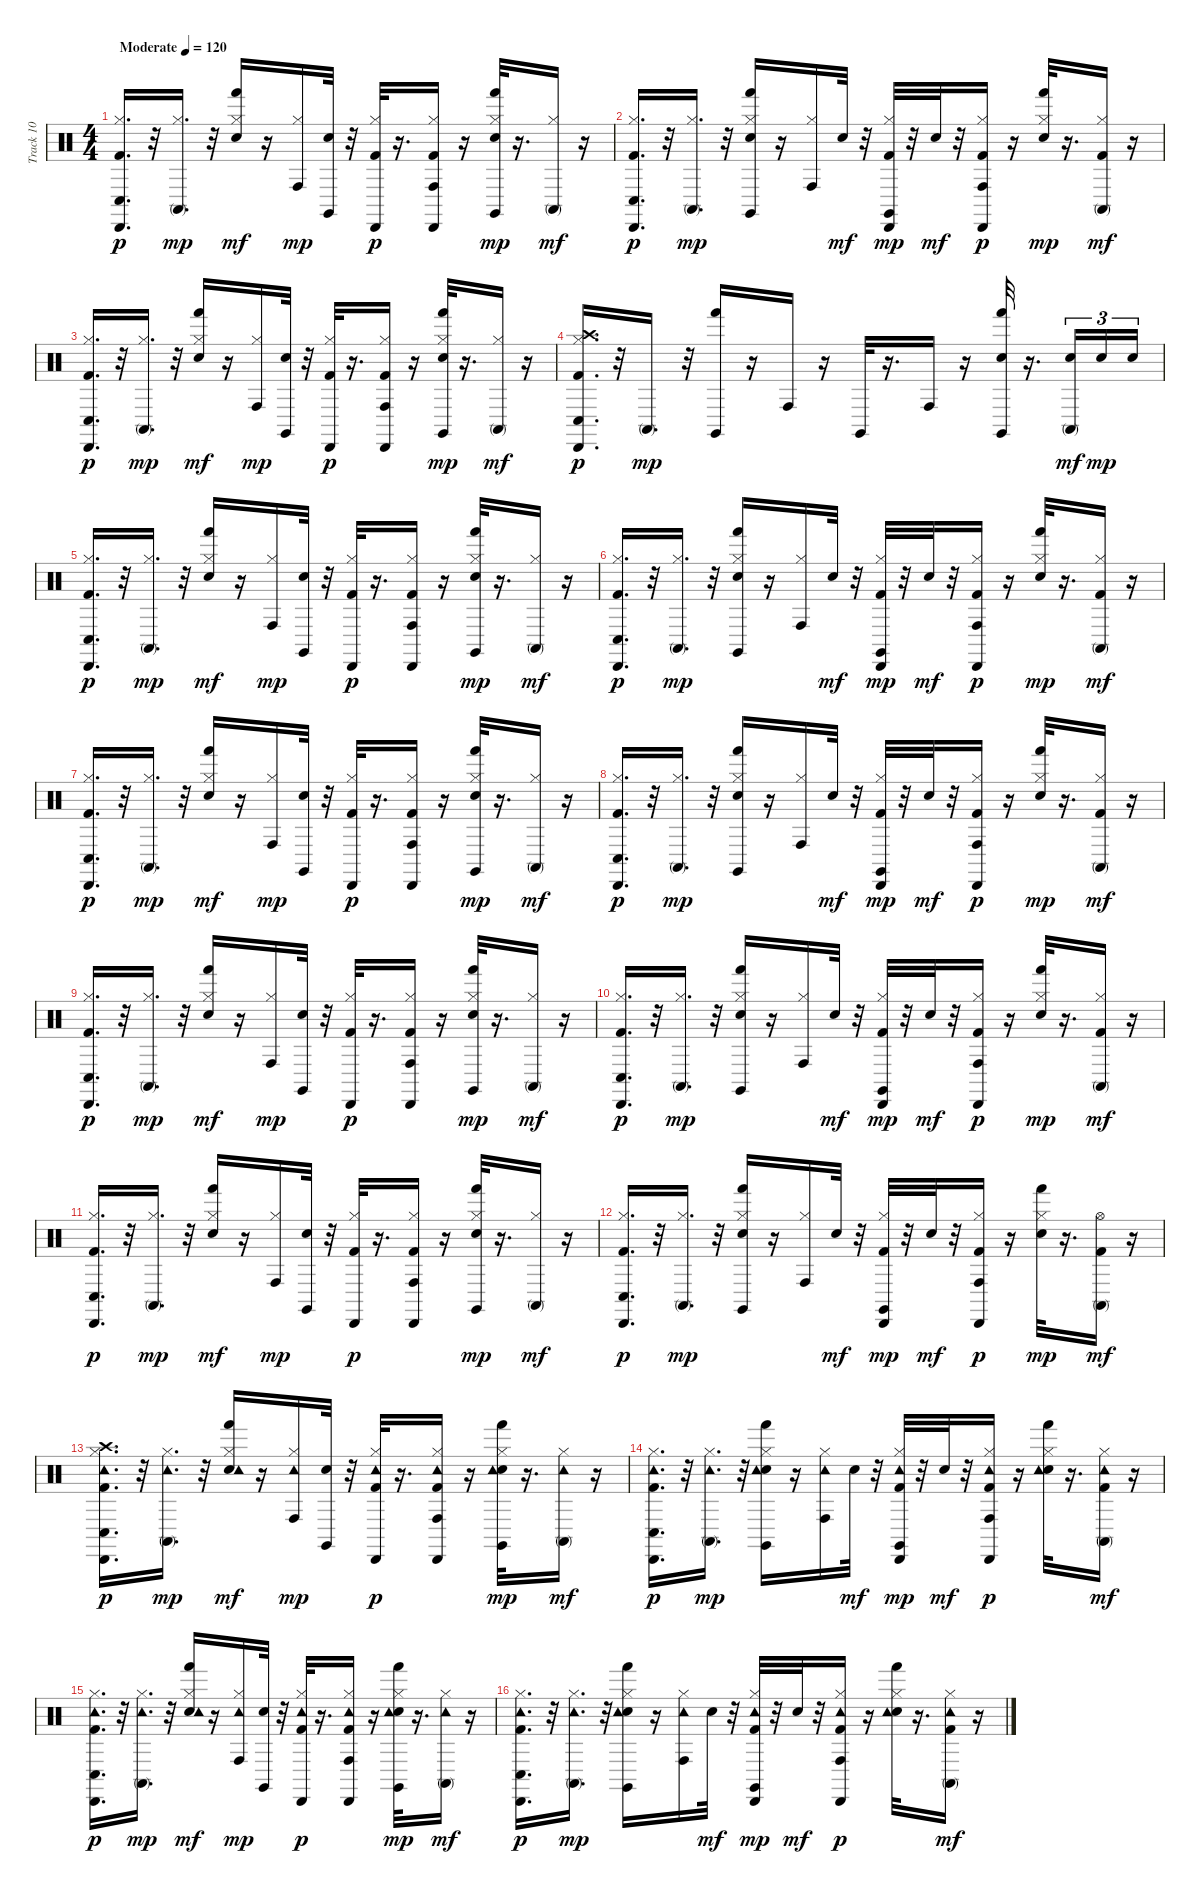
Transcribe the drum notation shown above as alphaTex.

\track ("Track 10" "Track 10") {instrument percussion}
\staff {score}
\articulation defaults
\ts (4 4)
\tempo (120 "Moderate")
\clef neutral
\ks c
("Kick (hit) 2" "Hi-Hat (closed)" "Conga low (hit)" "Cabasa (hit)").16{d dy p} r.32 ("Hi-Hat (closed)" "Conga high (mute)").16{d dy mp} r.32 ("Electric Snare (hit)" "Hi-Hat (closed)" "Hand (hit)").16{dy mf} r.16 ("Hi-Hat (closed)" "Conga high (hit)").16{dy mp} ("Electric Snare (hit)" "Claves (hit)").32 r.32 ("Kick (hit) 2" "Hi-Hat (closed)" "Cabasa (hit)").32{dy p} r.16{d} ("Kick (hit) 2" "Hi-Hat (closed)" "Conga high (hit)" "Cabasa (hit)").16 r.16 ("Electric Snare (hit)" "Hi-Hat (closed)" "Hand (hit)" "Claves (hit)").32{dy mp} r.16{d} ("Hi-Hat (closed)" "Conga high (mute)").16{dy mf} r.16 |
("Kick (hit) 2" "Hi-Hat (closed)" "Conga low (hit)" "Cabasa (hit)").16{d dy p} r.32 ("Hi-Hat (closed)" "Conga high (mute)").16{d dy mp} r.32 ("Electric Snare (hit)" "Hi-Hat (closed)" "Hand (hit)" "Claves (hit)").16 r.16 ("Hi-Hat (closed)" "Conga high (hit)").16 "Electric Snare (hit)".32{dy mf} r.32 ("Kick (hit) 2" "Hi-Hat (closed)" "Cabasa (hit)" "Claves (hit)").32{dy mp} r.32 "Electric Snare (hit)".32{dy mf} r.32 ("Kick (hit) 2" "Hi-Hat (closed)" "Conga high (hit)" "Cabasa (hit)").16{dy p} r.16 ("Electric Snare (hit)" "Hi-Hat (closed)" "Hand (hit)").32{dy mp} r.16{d} ("Kick (hit) 2" "Hi-Hat (closed)" "Conga high (mute)").16{dy mf} r.16 |
("Kick (hit) 2" "Hi-Hat (closed)" "Conga low (hit)" "Cabasa (hit)").16{d dy p} r.32 ("Hi-Hat (closed)" "Conga high (mute)").16{d dy mp} r.32 ("Electric Snare (hit)" "Hi-Hat (closed)" "Hand (hit)").16{dy mf} r.16 ("Hi-Hat (closed)" "Conga high (hit)").16{dy mp} ("Electric Snare (hit)" "Claves (hit)").32 r.32 ("Kick (hit) 2" "Hi-Hat (closed)" "Cabasa (hit)").32{dy p} r.16{d} ("Kick (hit) 2" "Hi-Hat (closed)" "Conga high (hit)" "Cabasa (hit)").16 r.16 ("Electric Snare (hit)" "Hi-Hat (closed)" "Hand (hit)" "Claves (hit)").32{dy mp} r.16{d} ("Hi-Hat (closed)" "Conga high (mute)").16{dy mf} r.16 |
("Kick (hit) 2" "Hi-Hat (closed)" "Crash high (hit)" "Conga low (hit)" "Cabasa (hit)").16{d dy p} r.32 "Conga high (mute)".16{d dy mp} r.32 ("Hand (hit)" "Claves (hit)").16 r.16 "Conga high (hit)".16 r.16 "Claves (hit)".32 r.16{d} "Conga high (hit)".16 r.16 ("Electric Snare (hit)" "Hand (hit)" "Claves (hit)").32 r.16{d} ("Electric Snare (hit)" "Conga high (mute)").16{tu (3 2) dy mf} "Electric Snare (hit)".16{tu (3 2) dy mp} "Electric Snare (hit)".16{tu (3 2)} |
("Kick (hit) 2" "Hi-Hat (closed)" "Conga low (hit)" "Cabasa (hit)").16{d dy p} r.32 ("Hi-Hat (closed)" "Conga high (mute)").16{d dy mp} r.32 ("Electric Snare (hit)" "Hi-Hat (closed)" "Hand (hit)").16{dy mf} r.16 ("Hi-Hat (closed)" "Conga high (hit)").16{dy mp} ("Electric Snare (hit)" "Claves (hit)").32 r.32 ("Kick (hit) 2" "Hi-Hat (closed)" "Cabasa (hit)").32{dy p} r.16{d} ("Kick (hit) 2" "Hi-Hat (closed)" "Conga high (hit)" "Cabasa (hit)").16 r.16 ("Electric Snare (hit)" "Hi-Hat (closed)" "Hand (hit)" "Claves (hit)").32{dy mp} r.16{d} ("Hi-Hat (closed)" "Conga high (mute)").16{dy mf} r.16 |
("Kick (hit) 2" "Hi-Hat (closed)" "Conga low (hit)" "Cabasa (hit)").16{d dy p} r.32 ("Hi-Hat (closed)" "Conga high (mute)").16{d dy mp} r.32 ("Electric Snare (hit)" "Hi-Hat (closed)" "Hand (hit)" "Claves (hit)").16 r.16 ("Hi-Hat (closed)" "Conga high (hit)").16 "Electric Snare (hit)".32{dy mf} r.32 ("Kick (hit) 2" "Hi-Hat (closed)" "Cabasa (hit)" "Claves (hit)").32{dy mp} r.32 "Electric Snare (hit)".32{dy mf} r.32 ("Kick (hit) 2" "Hi-Hat (closed)" "Conga high (hit)" "Cabasa (hit)").16{dy p} r.16 ("Electric Snare (hit)" "Hi-Hat (closed)" "Hand (hit)").32{dy mp} r.16{d} ("Kick (hit) 2" "Hi-Hat (closed)" "Conga high (mute)").16{dy mf} r.16 |
("Kick (hit) 2" "Hi-Hat (closed)" "Conga low (hit)" "Cabasa (hit)").16{d dy p} r.32 ("Hi-Hat (closed)" "Conga high (mute)").16{d dy mp} r.32 ("Electric Snare (hit)" "Hi-Hat (closed)" "Hand (hit)").16{dy mf} r.16 ("Hi-Hat (closed)" "Conga high (hit)").16{dy mp} ("Electric Snare (hit)" "Claves (hit)").32 r.32 ("Kick (hit) 2" "Hi-Hat (closed)" "Cabasa (hit)").32{dy p} r.16{d} ("Kick (hit) 2" "Hi-Hat (closed)" "Conga high (hit)" "Cabasa (hit)").16 r.16 ("Electric Snare (hit)" "Hi-Hat (closed)" "Hand (hit)" "Claves (hit)").32{dy mp} r.16{d} ("Hi-Hat (closed)" "Conga high (mute)").16{dy mf} r.16 |
("Kick (hit) 2" "Hi-Hat (closed)" "Conga low (hit)" "Cabasa (hit)").16{d dy p} r.32 ("Hi-Hat (closed)" "Conga high (mute)").16{d dy mp} r.32 ("Electric Snare (hit)" "Hi-Hat (closed)" "Hand (hit)" "Claves (hit)").16 r.16 ("Hi-Hat (closed)" "Conga high (hit)").16 "Electric Snare (hit)".32{dy mf} r.32 ("Kick (hit) 2" "Hi-Hat (closed)" "Cabasa (hit)" "Claves (hit)").32{dy mp} r.32 "Electric Snare (hit)".32{dy mf} r.32 ("Kick (hit) 2" "Hi-Hat (closed)" "Conga high (hit)" "Cabasa (hit)").16{dy p} r.16 ("Electric Snare (hit)" "Hi-Hat (closed)" "Hand (hit)").32{dy mp} r.16{d} ("Kick (hit) 2" "Hi-Hat (closed)" "Conga high (mute)").16{dy mf} r.16 |
("Kick (hit) 2" "Hi-Hat (closed)" "Conga low (hit)" "Cabasa (hit)").16{d dy p} r.32 ("Hi-Hat (closed)" "Conga high (mute)").16{d dy mp} r.32 ("Electric Snare (hit)" "Hi-Hat (closed)" "Hand (hit)").16{dy mf} r.16 ("Hi-Hat (closed)" "Conga high (hit)").16{dy mp} ("Electric Snare (hit)" "Claves (hit)").32 r.32 ("Kick (hit) 2" "Hi-Hat (closed)" "Cabasa (hit)").32{dy p} r.16{d} ("Kick (hit) 2" "Hi-Hat (closed)" "Conga high (hit)" "Cabasa (hit)").16 r.16 ("Electric Snare (hit)" "Hi-Hat (closed)" "Hand (hit)" "Claves (hit)").32{dy mp} r.16{d} ("Hi-Hat (closed)" "Conga high (mute)").16{dy mf} r.16 |
("Kick (hit) 2" "Hi-Hat (closed)" "Conga low (hit)" "Cabasa (hit)").16{d dy p} r.32 ("Hi-Hat (closed)" "Conga high (mute)").16{d dy mp} r.32 ("Electric Snare (hit)" "Hi-Hat (closed)" "Hand (hit)" "Claves (hit)").16 r.16 ("Hi-Hat (closed)" "Conga high (hit)").16 "Electric Snare (hit)".32{dy mf} r.32 ("Kick (hit) 2" "Hi-Hat (closed)" "Cabasa (hit)" "Claves (hit)").32{dy mp} r.32 "Electric Snare (hit)".32{dy mf} r.32 ("Kick (hit) 2" "Hi-Hat (closed)" "Conga high (hit)" "Cabasa (hit)").16{dy p} r.16 ("Electric Snare (hit)" "Hi-Hat (closed)" "Hand (hit)").32{dy mp} r.16{d} ("Kick (hit) 2" "Hi-Hat (closed)" "Conga high (mute)").16{dy mf} r.16 |
("Kick (hit) 2" "Hi-Hat (closed)" "Conga low (hit)" "Cabasa (hit)").16{d dy p} r.32 ("Hi-Hat (closed)" "Conga high (mute)").16{d dy mp} r.32 ("Electric Snare (hit)" "Hi-Hat (closed)" "Hand (hit)").16{dy mf} r.16 ("Hi-Hat (closed)" "Conga high (hit)").16{dy mp} ("Electric Snare (hit)" "Claves (hit)").32 r.32 ("Kick (hit) 2" "Hi-Hat (closed)" "Cabasa (hit)").32{dy p} r.16{d} ("Kick (hit) 2" "Hi-Hat (closed)" "Conga high (hit)" "Cabasa (hit)").16 r.16 ("Electric Snare (hit)" "Hi-Hat (closed)" "Hand (hit)" "Claves (hit)").32{dy mp} r.16{d} ("Hi-Hat (closed)" "Conga high (mute)").16{dy mf} r.16 |
("Kick (hit) 2" "Hi-Hat (closed)" "Conga low (hit)" "Cabasa (hit)").16{d dy p} r.32 ("Hi-Hat (closed)" "Conga high (mute)").16{d dy mp} r.32 ("Electric Snare (hit)" "Hi-Hat (closed)" "Hand (hit)" "Claves (hit)").16 r.16 ("Hi-Hat (closed)" "Conga high (hit)").16 "Electric Snare (hit)".32{dy mf} r.32 ("Kick (hit) 2" "Hi-Hat (closed)" "Cabasa (hit)" "Claves (hit)").32{dy mp} r.32 "Electric Snare (hit)".32{dy mf} r.32 ("Kick (hit) 2" "Hi-Hat (closed)" "Conga high (hit)" "Cabasa (hit)").16{dy p} r.16 ("Electric Snare (hit)" "Hi-Hat (closed)" "Hand (hit)").32{dy mp} r.16{d} ("Kick (hit) 2" "Hi-Hat (open)" "Conga high (mute)").16{dy mf} r.16 |
("Kick (hit) 2" "Hi-Hat (closed)" "Crash high (hit)" "Tambourine (hit)" "Conga low (hit)" "Cabasa (hit)").16{d dy p} r.32 ("Hi-Hat (closed)" "Tambourine (hit)" "Conga high (mute)").16{d dy mp} r.32 ("Electric Snare (hit)" "Hi-Hat (closed)" "Tambourine (hit)" "Hand (hit)").16{dy mf} r.16 ("Hi-Hat (closed)" "Tambourine (hit)" "Conga high (hit)").16{dy mp} ("Electric Snare (hit)" "Claves (hit)").32 r.32 ("Kick (hit) 2" "Hi-Hat (closed)" "Tambourine (hit)" "Cabasa (hit)").32{dy p} r.16{d} ("Kick (hit) 2" "Hi-Hat (closed)" "Tambourine (hit)" "Conga high (hit)" "Cabasa (hit)").16 r.16 ("Electric Snare (hit)" "Hi-Hat (closed)" "Tambourine (hit)" "Hand (hit)" "Claves (hit)").32{dy mp} r.16{d} ("Hi-Hat (closed)" "Tambourine (hit)" "Conga high (mute)").16{dy mf} r.16 |
("Kick (hit) 2" "Hi-Hat (closed)" "Tambourine (hit)" "Conga low (hit)" "Cabasa (hit)").16{d dy p} r.32 ("Hi-Hat (closed)" "Tambourine (hit)" "Conga high (mute)").16{d dy mp} r.32 ("Electric Snare (hit)" "Hi-Hat (closed)" "Tambourine (hit)" "Hand (hit)" "Claves (hit)").16 r.16 ("Hi-Hat (closed)" "Tambourine (hit)" "Conga high (hit)").16 "Electric Snare (hit)".32{dy mf} r.32 ("Kick (hit) 2" "Hi-Hat (closed)" "Tambourine (hit)" "Cabasa (hit)" "Claves (hit)").32{dy mp} r.32 "Electric Snare (hit)".32{dy mf} r.32 ("Kick (hit) 2" "Hi-Hat (closed)" "Tambourine (hit)" "Conga high (hit)" "Cabasa (hit)").16{dy p} r.16 ("Electric Snare (hit)" "Hi-Hat (closed)" "Tambourine (hit)" "Hand (hit)").32 r.16{d} ("Kick (hit) 2" "Hi-Hat (closed)" "Tambourine (hit)" "Conga high (mute)").16{dy mf} r.16 |
("Kick (hit) 2" "Hi-Hat (closed)" "Tambourine (hit)" "Conga low (hit)" "Cabasa (hit)").16{d dy p} r.32 ("Hi-Hat (closed)" "Tambourine (hit)" "Conga high (mute)").16{d dy mp} r.32 ("Electric Snare (hit)" "Hi-Hat (closed)" "Tambourine (hit)" "Hand (hit)").16{dy mf} r.16 ("Hi-Hat (closed)" "Tambourine (hit)" "Conga high (hit)").16{dy mp} ("Electric Snare (hit)" "Claves (hit)").32 r.32 ("Kick (hit) 2" "Hi-Hat (closed)" "Tambourine (hit)" "Cabasa (hit)").32{dy p} r.16{d} ("Kick (hit) 2" "Hi-Hat (closed)" "Tambourine (hit)" "Conga high (hit)" "Cabasa (hit)").16 r.16 ("Electric Snare (hit)" "Hi-Hat (closed)" "Tambourine (hit)" "Hand (hit)" "Claves (hit)").32{dy mp} r.16{d} ("Hi-Hat (closed)" "Tambourine (hit)" "Conga high (mute)").16{dy mf} r.16 |
("Kick (hit) 2" "Hi-Hat (closed)" "Tambourine (hit)" "Conga low (hit)" "Cabasa (hit)").16{d dy p} r.32 ("Hi-Hat (closed)" "Tambourine (hit)" "Conga high (mute)").16{d dy mp} r.32 ("Electric Snare (hit)" "Hi-Hat (closed)" "Tambourine (hit)" "Hand (hit)" "Claves (hit)").16 r.16 ("Hi-Hat (closed)" "Tambourine (hit)" "Conga high (hit)").16 "Electric Snare (hit)".32{dy mf} r.32 ("Kick (hit) 2" "Hi-Hat (closed)" "Tambourine (hit)" "Cabasa (hit)" "Claves (hit)").32{dy mp} r.32 "Electric Snare (hit)".32{dy mf} r.32 ("Kick (hit) 2" "Hi-Hat (closed)" "Tambourine (hit)" "Conga high (hit)" "Cabasa (hit)").16{dy p} r.16 ("Electric Snare (hit)" "Hi-Hat (closed)" "Tambourine (hit)" "Hand (hit)").32 r.16{d} ("Kick (hit) 2" "Hi-Hat (closed)" "Tambourine (hit)" "Conga high (mute)").16{dy mf} r.16
